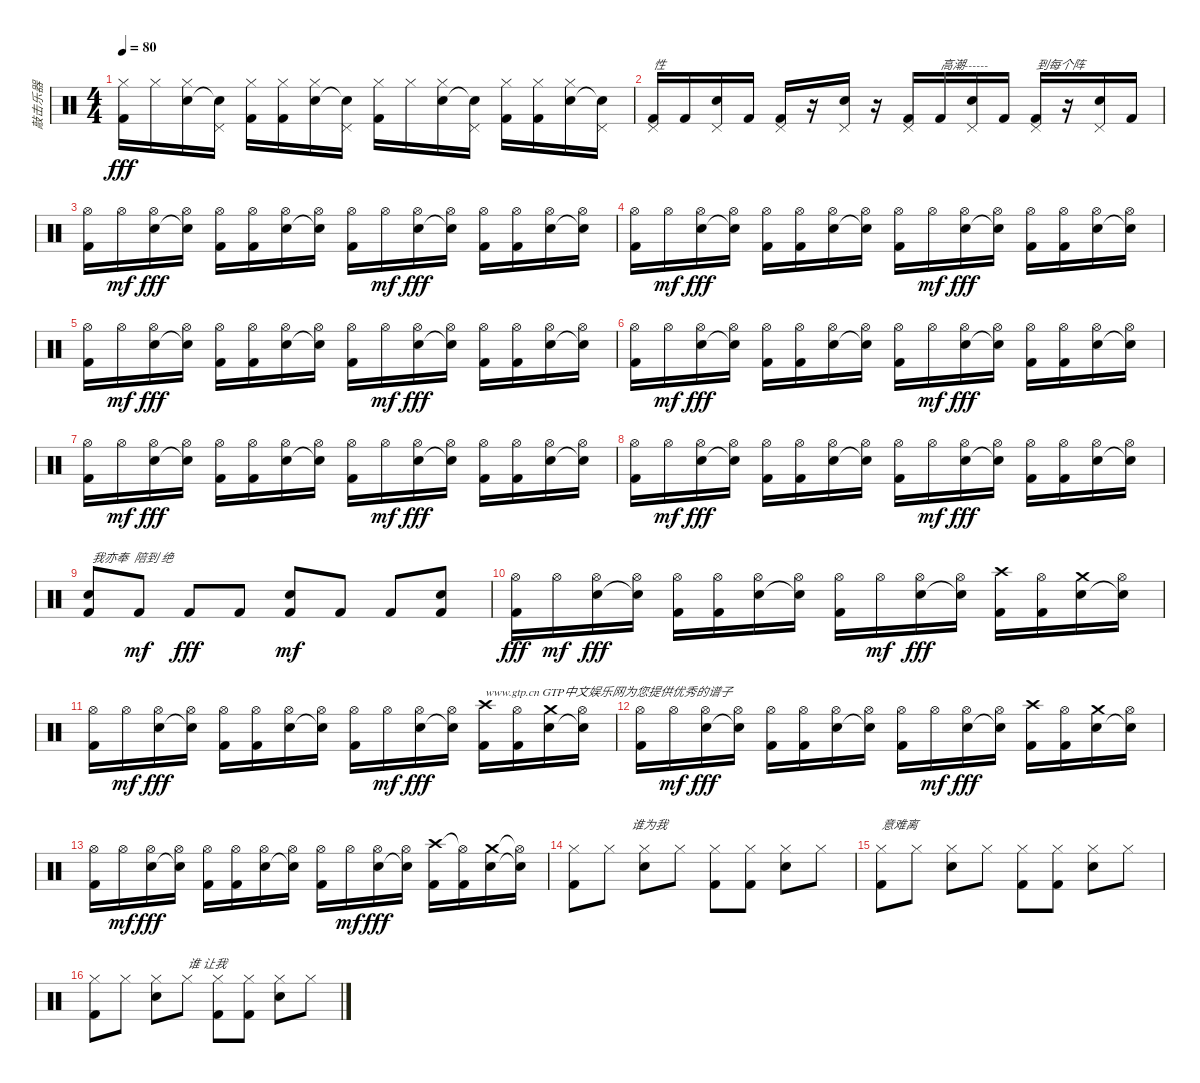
\track ("敲击乐器" "敲击乐器") {instrument percussion}
\staff {score}
\articulation defaults
\ts (4 4)
\tempo 80
\clef neutral
\ks c
("Hi-Hat (closed)" "Kick (hit) 2").16{dy fff} "Hi-Hat (closed)".16 ("Hi-Hat (closed)" "Electric Snare (hit)").16 ("Pedal Hi-Hat (hit)" "Snare (hit)"{t}).16 ("Hi-Hat (closed)" "Kick (hit) 2").16 ("Hi-Hat (closed)" "Kick (hit) 2").16 ("Hi-Hat (closed)" "Electric Snare (hit)").16 ("Pedal Hi-Hat (hit)" "Snare (hit)"{t}).16 ("Hi-Hat (closed)" "Kick (hit) 2").16 "Hi-Hat (closed)".16 ("Hi-Hat (closed)" "Electric Snare (hit)").16 ("Pedal Hi-Hat (hit)" "Snare (hit)"{t}).16 ("Hi-Hat (closed)" "Kick (hit) 2").16 ("Hi-Hat (closed)" "Kick (hit) 2").16 ("Hi-Hat (closed)" "Electric Snare (hit)").16 ("Pedal Hi-Hat (hit)" "Snare (hit)"{t}).16 |
("Pedal Hi-Hat (hit)" "Kick (hit) 2").16{txt "性"} "Kick (hit) 2".16 ("Pedal Hi-Hat (hit)" "Electric Snare (hit)").16 "Kick (hit) 2".16 ("Pedal Hi-Hat (hit)" "Kick (hit) 2").16 r.16 ("Pedal Hi-Hat (hit)" "Electric Snare (hit)").16 r.16 ("Pedal Hi-Hat (hit)" "Kick (hit) 2").16 "Kick (hit) 2".16{txt "高潮------"} ("Pedal Hi-Hat (hit)" "Electric Snare (hit)").16 "Kick (hit) 2".16 ("Pedal Hi-Hat (hit)" "Kick (hit) 2").16{txt "到每个阵"} r.16 ("Pedal Hi-Hat (hit)" "Electric Snare (hit)").16 "Kick (hit) 2".16 |
("Hi-Hat (open)" "Kick (hit) 2").16 "Hi-Hat (open)".16{dy mf} ("Hi-Hat (open)" "Electric Snare (hit)").16{dy fff} ("Hi-Hat (open)" "Snare (hit)"{t}).16 ("Hi-Hat (open)" "Kick (hit) 2").16 ("Hi-Hat (open)" "Kick (hit) 2").16 ("Hi-Hat (open)" "Electric Snare (hit)").16 ("Hi-Hat (open)" "Snare (hit)"{t}).16 ("Hi-Hat (open)" "Kick (hit) 2").16 "Hi-Hat (open)".16{dy mf} ("Hi-Hat (open)" "Electric Snare (hit)").16{dy fff} ("Hi-Hat (open)" "Snare (hit)"{t}).16 ("Hi-Hat (open)" "Kick (hit) 2").16 ("Hi-Hat (open)" "Kick (hit) 2").16 ("Hi-Hat (open)" "Electric Snare (hit)").16 ("Hi-Hat (open)" "Snare (hit)"{t}).16 |
("Hi-Hat (open)" "Kick (hit) 2").16 "Hi-Hat (open)".16{dy mf} ("Hi-Hat (open)" "Electric Snare (hit)").16{dy fff} ("Hi-Hat (open)" "Snare (hit)"{t}).16 ("Hi-Hat (open)" "Kick (hit) 2").16 ("Hi-Hat (open)" "Kick (hit) 2").16 ("Hi-Hat (open)" "Electric Snare (hit)").16 ("Hi-Hat (open)" "Snare (hit)"{t}).16 ("Hi-Hat (open)" "Kick (hit) 2").16 "Hi-Hat (open)".16{dy mf} ("Hi-Hat (open)" "Electric Snare (hit)").16{dy fff} ("Hi-Hat (open)" "Snare (hit)"{t}).16 ("Hi-Hat (open)" "Kick (hit) 2").16 ("Hi-Hat (open)" "Kick (hit) 2").16 ("Hi-Hat (open)" "Electric Snare (hit)").16 ("Hi-Hat (open)" "Snare (hit)"{t}).16 |
("Hi-Hat (open)" "Kick (hit) 2").16 "Hi-Hat (open)".16{dy mf} ("Hi-Hat (open)" "Electric Snare (hit)").16{dy fff} ("Hi-Hat (open)" "Snare (hit)"{t}).16 ("Hi-Hat (open)" "Kick (hit) 2").16 ("Hi-Hat (open)" "Kick (hit) 2").16 ("Hi-Hat (open)" "Electric Snare (hit)").16 ("Hi-Hat (open)" "Snare (hit)"{t}).16 ("Hi-Hat (open)" "Kick (hit) 2").16 "Hi-Hat (open)".16{dy mf} ("Hi-Hat (open)" "Electric Snare (hit)").16{dy fff} ("Hi-Hat (open)" "Snare (hit)"{t}).16 ("Hi-Hat (open)" "Kick (hit) 2").16 ("Hi-Hat (open)" "Kick (hit) 2").16 ("Hi-Hat (open)" "Electric Snare (hit)").16 ("Hi-Hat (open)" "Snare (hit)"{t}).16 |
("Hi-Hat (open)" "Kick (hit) 2").16 "Hi-Hat (open)".16{dy mf} ("Hi-Hat (open)" "Electric Snare (hit)").16{dy fff} ("Hi-Hat (open)" "Snare (hit)"{t}).16 ("Hi-Hat (open)" "Kick (hit) 2").16 ("Hi-Hat (open)" "Kick (hit) 2").16 ("Hi-Hat (open)" "Electric Snare (hit)").16 ("Hi-Hat (open)" "Snare (hit)"{t}).16 ("Hi-Hat (open)" "Kick (hit) 2").16 "Hi-Hat (open)".16{dy mf} ("Hi-Hat (open)" "Electric Snare (hit)").16{dy fff} ("Hi-Hat (open)" "Snare (hit)"{t}).16 ("Hi-Hat (open)" "Kick (hit) 2").16 ("Hi-Hat (open)" "Kick (hit) 2").16 ("Hi-Hat (open)" "Electric Snare (hit)").16 ("Hi-Hat (open)" "Snare (hit)"{t}).16 |
("Hi-Hat (open)" "Kick (hit) 2").16 "Hi-Hat (open)".16{dy mf} ("Hi-Hat (open)" "Electric Snare (hit)").16{dy fff} ("Hi-Hat (open)" "Snare (hit)"{t}).16 ("Hi-Hat (open)" "Kick (hit) 2").16 ("Hi-Hat (open)" "Kick (hit) 2").16 ("Hi-Hat (open)" "Electric Snare (hit)").16 ("Hi-Hat (open)" "Snare (hit)"{t}).16 ("Hi-Hat (open)" "Kick (hit) 2").16 "Hi-Hat (open)".16{dy mf} ("Hi-Hat (open)" "Electric Snare (hit)").16{dy fff} ("Hi-Hat (open)" "Snare (hit)"{t}).16 ("Hi-Hat (open)" "Kick (hit) 2").16 ("Hi-Hat (open)" "Kick (hit) 2").16 ("Hi-Hat (open)" "Electric Snare (hit)").16 ("Hi-Hat (open)" "Snare (hit)"{t}).16 |
("Hi-Hat (open)" "Kick (hit) 2").16 "Hi-Hat (open)".16{dy mf} ("Hi-Hat (open)" "Electric Snare (hit)").16{dy fff} ("Hi-Hat (open)" "Snare (hit)"{t}).16 ("Hi-Hat (open)" "Kick (hit) 2").16 ("Hi-Hat (open)" "Kick (hit) 2").16 ("Hi-Hat (open)" "Electric Snare (hit)").16 ("Hi-Hat (open)" "Snare (hit)"{t}).16 ("Hi-Hat (open)" "Kick (hit) 2").16 "Hi-Hat (open)".16{dy mf} ("Hi-Hat (open)" "Electric Snare (hit)").16{dy fff} ("Hi-Hat (open)" "Snare (hit)"{t}).16 ("Hi-Hat (open)" "Kick (hit) 2").16 ("Hi-Hat (open)" "Kick (hit) 2").16 ("Hi-Hat (open)" "Electric Snare (hit)").16 ("Hi-Hat (open)" "Snare (hit)"{t}).16 |
("Electric Snare (hit)" "Kick (hit) 2").8{txt " 我亦奉  陪到 绝"} "Kick (hit) 2".8{dy mf} "Kick (hit) 2".8{dy fff} "Kick (hit) 2".8 ("Electric Snare (hit)" "Kick (hit) 2").8{dy mf} "Kick (hit) 2".8 "Kick (hit) 2".8 ("Electric Snare (hit)" "Kick (hit) 2").8 |
("Hi-Hat (open)" "Kick (hit) 2").16{dy fff} "Hi-Hat (open)".16{dy mf} ("Hi-Hat (open)" "Electric Snare (hit)").16{dy fff} ("Hi-Hat (open)" "Snare (hit)"{t}).16 ("Hi-Hat (open)" "Kick (hit) 2").16 ("Hi-Hat (open)" "Kick (hit) 2").16 ("Hi-Hat (open)" "Electric Snare (hit)").16 ("Hi-Hat (open)" "Snare (hit)"{t}).16 ("Hi-Hat (open)" "Kick (hit) 2").16 "Hi-Hat (open)".16{dy mf} ("Hi-Hat (open)" "Electric Snare (hit)").16{dy fff} ("Hi-Hat (open)" "Snare (hit)"{t}).16 ("Crash high (hit)" "Kick (hit) 2").16 ("Hi-Hat (open)" "Kick (hit) 2").16 ("Crash medium (hit)" "Electric Snare (hit)").16 ("Hi-Hat (open)" "Snare (hit)"{t}).16 |
("Hi-Hat (open)" "Kick (hit) 2").16 "Hi-Hat (open)".16{dy mf} ("Hi-Hat (open)" "Electric Snare (hit)").16{dy fff} ("Hi-Hat (open)" "Snare (hit)"{t}).16 ("Hi-Hat (open)" "Kick (hit) 2").16 ("Hi-Hat (open)" "Kick (hit) 2").16 ("Hi-Hat (open)" "Electric Snare (hit)").16 ("Hi-Hat (open)" "Snare (hit)"{t}).16 ("Hi-Hat (open)" "Kick (hit) 2").16 "Hi-Hat (open)".16{dy mf} ("Hi-Hat (open)" "Electric Snare (hit)").16{dy fff} ("Hi-Hat (open)" "Snare (hit)"{t}).16 ("Crash high (hit)" "Kick (hit) 2").16{txt "www.gtp.cn GTP中文娱乐网为您提供优秀的谱子"} ("Hi-Hat (open)" "Kick (hit) 2").16 ("Crash medium (hit)" "Electric Snare (hit)").16 ("Hi-Hat (open)" "Snare (hit)"{t}).16 |
("Hi-Hat (open)" "Kick (hit) 2").16 "Hi-Hat (open)".16{dy mf} ("Hi-Hat (open)" "Electric Snare (hit)").16{dy fff} ("Hi-Hat (open)" "Snare (hit)"{t}).16 ("Hi-Hat (open)" "Kick (hit) 2").16 ("Hi-Hat (open)" "Kick (hit) 2").16 ("Hi-Hat (open)" "Electric Snare (hit)").16 ("Hi-Hat (open)" "Snare (hit)"{t}).16 ("Hi-Hat (open)" "Kick (hit) 2").16 "Hi-Hat (open)".16{dy mf} ("Hi-Hat (open)" "Electric Snare (hit)").16{dy fff} ("Hi-Hat (open)" "Snare (hit)"{t}).16 ("Crash high (hit)" "Kick (hit) 2").16 ("Hi-Hat (open)" "Kick (hit) 2").16 ("Crash medium (hit)" "Electric Snare (hit)").16 ("Hi-Hat (open)" "Snare (hit)"{t}).16 |
("Hi-Hat (open)" "Kick (hit) 2").16 "Hi-Hat (open)".16{dy mf} ("Hi-Hat (open)" "Electric Snare (hit)").16{dy fff} ("Hi-Hat (open)" "Snare (hit)"{t}).16 ("Hi-Hat (open)" "Kick (hit) 2").16 ("Hi-Hat (open)" "Kick (hit) 2").16 ("Hi-Hat (open)" "Electric Snare (hit)").16 ("Hi-Hat (open)" "Snare (hit)"{t}).16 ("Hi-Hat (open)" "Kick (hit) 2").16 "Hi-Hat (open)".16{dy mf} ("Hi-Hat (open)" "Electric Snare (hit)").16{dy fff} ("Hi-Hat (open)" "Snare (hit)"{t}).16 ("Crash high (hit)" "Kick (hit) 2").16 ("Hi-Hat (open)"{t} "Kick (hit) 2").16 ("Crash medium (hit)" "Electric Snare (hit)").16 ("Hi-Hat (open)"{t} "Snare (hit)"{t}).16 |
("Hi-Hat (closed)" "Kick (hit) 2").8{txt "                   谁为我"} "Hi-Hat (closed)".8 ("Hi-Hat (closed)" "Electric Snare (hit)").8 "Hi-Hat (closed)".8 ("Hi-Hat (closed)" "Kick (hit) 2").8 ("Hi-Hat (closed)" "Kick (hit) 2").8 ("Hi-Hat (closed)" "Electric Snare (hit)").8 "Hi-Hat (closed)".8 |
("Hi-Hat (closed)" "Kick (hit) 2").8{txt "意难离"} "Hi-Hat (closed)".8 ("Hi-Hat (closed)" "Electric Snare (hit)").8 "Hi-Hat (closed)".8 ("Hi-Hat (closed)" "Kick (hit) 2").8 ("Hi-Hat (closed)" "Kick (hit) 2").8 ("Hi-Hat (closed)" "Electric Snare (hit)").8 "Hi-Hat (closed)".8 |
("Hi-Hat (closed)" "Kick (hit) 2").8 "Hi-Hat (closed)".8 ("Hi-Hat (closed)" "Electric Snare (hit)").8 "Hi-Hat (closed)".8{txt "谁 让我"} ("Hi-Hat (closed)" "Kick (hit) 2").8 ("Hi-Hat (closed)" "Kick (hit) 2").8 ("Hi-Hat (closed)" "Electric Snare (hit)").8 "Hi-Hat (closed)".8
